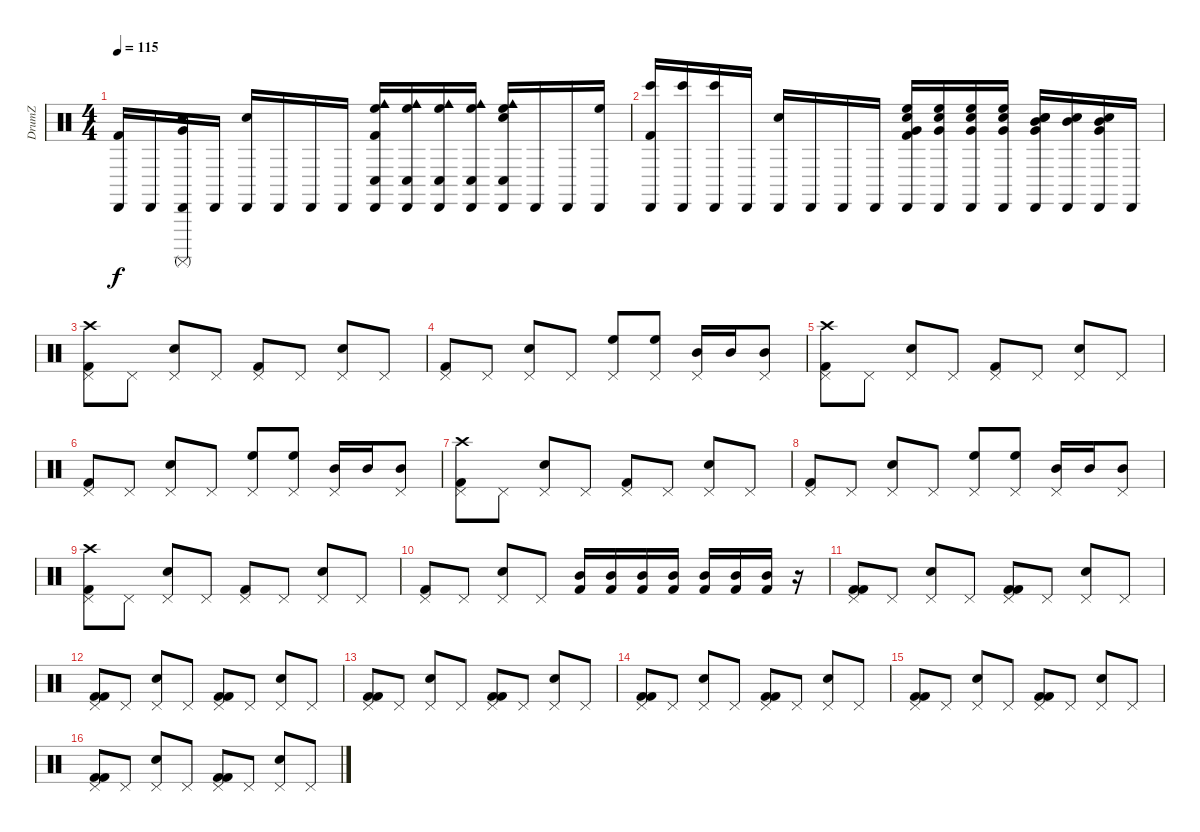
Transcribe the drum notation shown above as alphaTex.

\track ("DrumZ" "DrumZ") {instrument percussion}
\staff {score}
\articulation defaults
\ts (4 4)
\tempo 115
\clef neutral
\ks c
("Cabasa (hit)" "Kick (hit) 2").16{dy f} "Cabasa (hit)".16 ("Cabasa (hit)" "Very Low Tom (hit)" "Snare (hit) 2" "Surdo (mute)").16 "Cabasa (hit)".16 ("Cabasa (hit)" "Electric Snare (hit)").16 "Cabasa (hit)".16 "Cabasa (hit)".16 "Cabasa (hit)".16 ("Cabasa (hit)" "Cowbell medium (hit)" "Conga low (hit)" "High Floor Tom (hit)" "Kick (hit) 2").16 ("Cabasa (hit)" "Cowbell medium (hit)" "Conga low (hit)" "High Floor Tom (hit)").16 ("Cabasa (hit)" "Cowbell medium (hit)" "Conga low (hit)" "High Floor Tom (hit)").16 ("Cabasa (hit)" "Cowbell medium (hit)" "Conga low (hit)" "High Floor Tom (hit)").16 ("Cabasa (hit)" "Cowbell medium (hit)" "Conga low (hit)" "High Floor Tom (hit)" "Electric Snare (hit)").16 "Cabasa (hit)".16 "Cabasa (hit)".16 ("Cabasa (hit)" "High Floor Tom (hit)").16 |
("Cabasa (hit)" "Bongo High (hit)" "Kick (hit) 2").16 ("Cabasa (hit)" "Bongo High (hit)").16 ("Cabasa (hit)" "Bongo High (hit)").16 "Cabasa (hit)".16 ("Cabasa (hit)" "Electric Snare (hit)").16 "Cabasa (hit)".16 "Cabasa (hit)".16 "Cabasa (hit)".16 ("Cabasa (hit)" "Electric Snare (hit)" "High Floor Tom (hit)" "Very Low Tom (hit)" "Kick (hit) 2").16 ("Cabasa (hit)" "Electric Snare (hit)" "High Floor Tom (hit)" "Very Low Tom (hit)").16 ("Cabasa (hit)" "Electric Snare (hit)" "High Floor Tom (hit)" "Very Low Tom (hit)").16 ("Cabasa (hit)" "Electric Snare (hit)" "High Floor Tom (hit)" "Very Low Tom (hit)").16 ("Cabasa (hit)" "Electric Snare (hit)" "Mid Tom (hit)" "Very Low Tom (hit)" "Electric Snare (hit)").16 ("Cabasa (hit)" "Electric Snare (hit)" "Mid Tom (hit)").16 ("Cabasa (hit)" "Electric Snare (hit)" "Mid Tom (hit)" "Very Low Tom (hit)").16 "Cabasa (hit)".16 |
("Pedal Hi-Hat (hit)" "Crash high (hit)" "Kick (hit) 2").8 "Pedal Hi-Hat (hit)".8 ("Pedal Hi-Hat (hit)" "Electric Snare (hit)").8 "Pedal Hi-Hat (hit)".8 ("Pedal Hi-Hat (hit)" "Kick (hit) 2").8 "Pedal Hi-Hat (hit)".8 ("Pedal Hi-Hat (hit)" "Electric Snare (hit)").8 "Pedal Hi-Hat (hit)".8 |
("Pedal Hi-Hat (hit)" "Kick (hit) 2").8 "Pedal Hi-Hat (hit)".8 ("Pedal Hi-Hat (hit)" "Electric Snare (hit)").8 "Pedal Hi-Hat (hit)".8 ("Pedal Hi-Hat (hit)" "High Floor Tom (hit)").8 ("Pedal Hi-Hat (hit)" "High Floor Tom (hit)").8 ("Pedal Hi-Hat (hit)" "Mid Tom (hit)").16 "Mid Tom (hit)".16 ("Pedal Hi-Hat (hit)" "Mid Tom (hit)").8 |
("Pedal Hi-Hat (hit)" "Crash high (hit)" "Kick (hit) 2").8 "Pedal Hi-Hat (hit)".8 ("Pedal Hi-Hat (hit)" "Electric Snare (hit)").8 "Pedal Hi-Hat (hit)".8 ("Pedal Hi-Hat (hit)" "Kick (hit) 2").8 "Pedal Hi-Hat (hit)".8 ("Pedal Hi-Hat (hit)" "Electric Snare (hit)").8 "Pedal Hi-Hat (hit)".8 |
("Pedal Hi-Hat (hit)" "Kick (hit) 2").8 "Pedal Hi-Hat (hit)".8 ("Pedal Hi-Hat (hit)" "Electric Snare (hit)").8 "Pedal Hi-Hat (hit)".8 ("Pedal Hi-Hat (hit)" "High Floor Tom (hit)").8 ("Pedal Hi-Hat (hit)" "High Floor Tom (hit)").8 ("Pedal Hi-Hat (hit)" "Mid Tom (hit)").16 "Mid Tom (hit)".16 ("Pedal Hi-Hat (hit)" "Mid Tom (hit)").8 |
("Pedal Hi-Hat (hit)" "Crash high (hit)" "Kick (hit) 2").8 "Pedal Hi-Hat (hit)".8 ("Pedal Hi-Hat (hit)" "Electric Snare (hit)").8 "Pedal Hi-Hat (hit)".8 ("Pedal Hi-Hat (hit)" "Kick (hit) 2").8 "Pedal Hi-Hat (hit)".8 ("Pedal Hi-Hat (hit)" "Electric Snare (hit)").8 "Pedal Hi-Hat (hit)".8 |
("Pedal Hi-Hat (hit)" "Kick (hit) 2").8 "Pedal Hi-Hat (hit)".8 ("Pedal Hi-Hat (hit)" "Electric Snare (hit)").8 "Pedal Hi-Hat (hit)".8 ("Pedal Hi-Hat (hit)" "High Floor Tom (hit)").8 ("Pedal Hi-Hat (hit)" "High Floor Tom (hit)").8 ("Pedal Hi-Hat (hit)" "Mid Tom (hit)").16 "Mid Tom (hit)".16 ("Pedal Hi-Hat (hit)" "Mid Tom (hit)").8 |
("Pedal Hi-Hat (hit)" "Crash high (hit)" "Kick (hit) 2").8 "Pedal Hi-Hat (hit)".8 ("Pedal Hi-Hat (hit)" "Electric Snare (hit)").8 "Pedal Hi-Hat (hit)".8 ("Pedal Hi-Hat (hit)" "Kick (hit) 2").8 "Pedal Hi-Hat (hit)".8 ("Pedal Hi-Hat (hit)" "Electric Snare (hit)").8 "Pedal Hi-Hat (hit)".8 |
("Pedal Hi-Hat (hit)" "Kick (hit) 2").8 "Pedal Hi-Hat (hit)".8 ("Pedal Hi-Hat (hit)" "Electric Snare (hit)").8 "Pedal Hi-Hat (hit)".8 ("Kick (hit) 2" "Mid Tom (hit)").16 ("Kick (hit) 2" "Mid Tom (hit)").16 ("Kick (hit) 2" "Mid Tom (hit)").16 ("Kick (hit) 2" "Mid Tom (hit)").16 ("Kick (hit) 2" "Mid Tom (hit)").16 ("Kick (hit) 2" "Mid Tom (hit)").16 ("Kick (hit) 2" "Mid Tom (hit)").16 r.16 |
("Pedal Hi-Hat (hit)" "Kick (hit) 2" "Kick (hit) 2").8 "Pedal Hi-Hat (hit)".8 ("Pedal Hi-Hat (hit)" "Electric Snare (hit)").8 "Pedal Hi-Hat (hit)".8 ("Pedal Hi-Hat (hit)" "Kick (hit) 2" "Kick (hit) 2").8 "Pedal Hi-Hat (hit)".8 ("Pedal Hi-Hat (hit)" "Electric Snare (hit)").8 "Pedal Hi-Hat (hit)".8 |
("Pedal Hi-Hat (hit)" "Kick (hit) 2" "Kick (hit) 2").8 "Pedal Hi-Hat (hit)".8 ("Pedal Hi-Hat (hit)" "Electric Snare (hit)").8 "Pedal Hi-Hat (hit)".8 ("Pedal Hi-Hat (hit)" "Kick (hit) 2" "Kick (hit) 2").8 "Pedal Hi-Hat (hit)".8 ("Pedal Hi-Hat (hit)" "Electric Snare (hit)").8 "Pedal Hi-Hat (hit)".8 |
("Pedal Hi-Hat (hit)" "Kick (hit) 2" "Kick (hit) 2").8 "Pedal Hi-Hat (hit)".8 ("Pedal Hi-Hat (hit)" "Electric Snare (hit)").8 "Pedal Hi-Hat (hit)".8 ("Pedal Hi-Hat (hit)" "Kick (hit) 2" "Kick (hit) 2").8 "Pedal Hi-Hat (hit)".8 ("Pedal Hi-Hat (hit)" "Electric Snare (hit)").8 "Pedal Hi-Hat (hit)".8 |
("Pedal Hi-Hat (hit)" "Kick (hit) 2" "Kick (hit) 2").8 "Pedal Hi-Hat (hit)".8 ("Pedal Hi-Hat (hit)" "Electric Snare (hit)").8 "Pedal Hi-Hat (hit)".8 ("Pedal Hi-Hat (hit)" "Kick (hit) 2" "Kick (hit) 2").8 "Pedal Hi-Hat (hit)".8 ("Pedal Hi-Hat (hit)" "Electric Snare (hit)").8 "Pedal Hi-Hat (hit)".8 |
("Pedal Hi-Hat (hit)" "Kick (hit) 2" "Kick (hit) 2").8 "Pedal Hi-Hat (hit)".8 ("Pedal Hi-Hat (hit)" "Electric Snare (hit)").8 "Pedal Hi-Hat (hit)".8 ("Pedal Hi-Hat (hit)" "Kick (hit) 2" "Kick (hit) 2").8 "Pedal Hi-Hat (hit)".8 ("Pedal Hi-Hat (hit)" "Electric Snare (hit)").8 "Pedal Hi-Hat (hit)".8 |
("Pedal Hi-Hat (hit)" "Kick (hit) 2" "Kick (hit) 2").8 "Pedal Hi-Hat (hit)".8 ("Pedal Hi-Hat (hit)" "Electric Snare (hit)").8 "Pedal Hi-Hat (hit)".8 ("Pedal Hi-Hat (hit)" "Kick (hit) 2" "Kick (hit) 2").8 "Pedal Hi-Hat (hit)".8 ("Pedal Hi-Hat (hit)" "Electric Snare (hit)").8 "Pedal Hi-Hat (hit)".8
